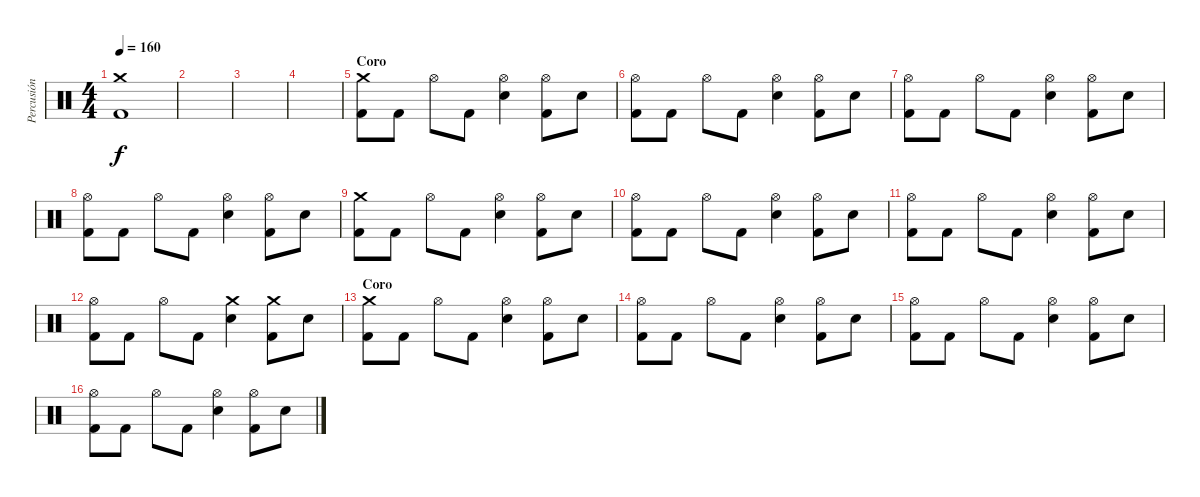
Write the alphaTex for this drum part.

\track ("Percusión" "Percusión") {instrument percussion}
\staff {score}
\articulation defaults
\ts (4 4)
\tempo 160
\clef neutral
\ks c
("Kick (hit) 2" "Crash medium (hit)").1{dy f} |
|
|
|
\section ("" "Coro")
("Crash medium (hit)" "Kick (hit) 2").8 "Kick (hit) 2".8 "Hi-Hat (open)".8 "Kick (hit) 2".8 ("Hi-Hat (open)" "Snare (hit) 2").4 ("Hi-Hat (open)" "Kick (hit) 2").8 "Snare (hit) 2".8 |
("Hi-Hat (open)" "Kick (hit) 2").8 "Kick (hit) 2".8 "Hi-Hat (open)".8 "Kick (hit) 2".8 ("Hi-Hat (open)" "Snare (hit) 2").4 ("Hi-Hat (open)" "Kick (hit) 2").8 "Snare (hit) 2".8 |
("Hi-Hat (open)" "Kick (hit) 2").8 "Kick (hit) 2".8 "Hi-Hat (open)".8 "Kick (hit) 2".8 ("Hi-Hat (open)" "Snare (hit) 2").4 ("Hi-Hat (open)" "Kick (hit) 2").8 "Snare (hit) 2".8 |
("Hi-Hat (open)" "Kick (hit) 2").8 "Kick (hit) 2".8 "Hi-Hat (open)".8 "Kick (hit) 2".8 ("Hi-Hat (open)" "Snare (hit) 2").4 ("Hi-Hat (open)" "Kick (hit) 2").8 "Snare (hit) 2".8 |
("Crash medium (hit)" "Kick (hit) 2").8 "Kick (hit) 2".8 "Hi-Hat (open)".8 "Kick (hit) 2".8 ("Hi-Hat (open)" "Snare (hit) 2").4 ("Hi-Hat (open)" "Kick (hit) 2").8 "Snare (hit) 2".8 |
("Hi-Hat (open)" "Kick (hit) 2").8 "Kick (hit) 2".8 "Hi-Hat (open)".8 "Kick (hit) 2".8 ("Hi-Hat (open)" "Snare (hit) 2").4 ("Hi-Hat (open)" "Kick (hit) 2").8 "Snare (hit) 2".8 |
("Hi-Hat (open)" "Kick (hit) 2").8 "Kick (hit) 2".8 "Hi-Hat (open)".8 "Kick (hit) 2".8 ("Hi-Hat (open)" "Snare (hit) 2").4 ("Hi-Hat (open)" "Kick (hit) 2").8 "Snare (hit) 2".8 |
("Hi-Hat (open)" "Kick (hit) 2").8 "Kick (hit) 2".8 "Hi-Hat (open)".8 "Kick (hit) 2".8 ("Crash medium (hit)" "Snare (hit) 2").4 ("Crash medium (hit)" "Kick (hit) 2").8 "Snare (hit) 2".8 |
\section ("" "Coro")
("Crash medium (hit)" "Kick (hit) 2").8 "Kick (hit) 2".8 "Hi-Hat (open)".8 "Kick (hit) 2".8 ("Hi-Hat (open)" "Snare (hit) 2").4 ("Hi-Hat (open)" "Kick (hit) 2").8 "Snare (hit) 2".8 |
("Hi-Hat (open)" "Kick (hit) 2").8 "Kick (hit) 2".8 "Hi-Hat (open)".8 "Kick (hit) 2".8 ("Hi-Hat (open)" "Snare (hit) 2").4 ("Hi-Hat (open)" "Kick (hit) 2").8 "Snare (hit) 2".8 |
("Hi-Hat (open)" "Kick (hit) 2").8 "Kick (hit) 2".8 "Hi-Hat (open)".8 "Kick (hit) 2".8 ("Hi-Hat (open)" "Snare (hit) 2").4 ("Hi-Hat (open)" "Kick (hit) 2").8 "Snare (hit) 2".8 |
("Hi-Hat (open)" "Kick (hit) 2").8 "Kick (hit) 2".8 "Hi-Hat (open)".8 "Kick (hit) 2".8 ("Hi-Hat (open)" "Snare (hit) 2").4 ("Hi-Hat (open)" "Kick (hit) 2").8 "Snare (hit) 2".8
